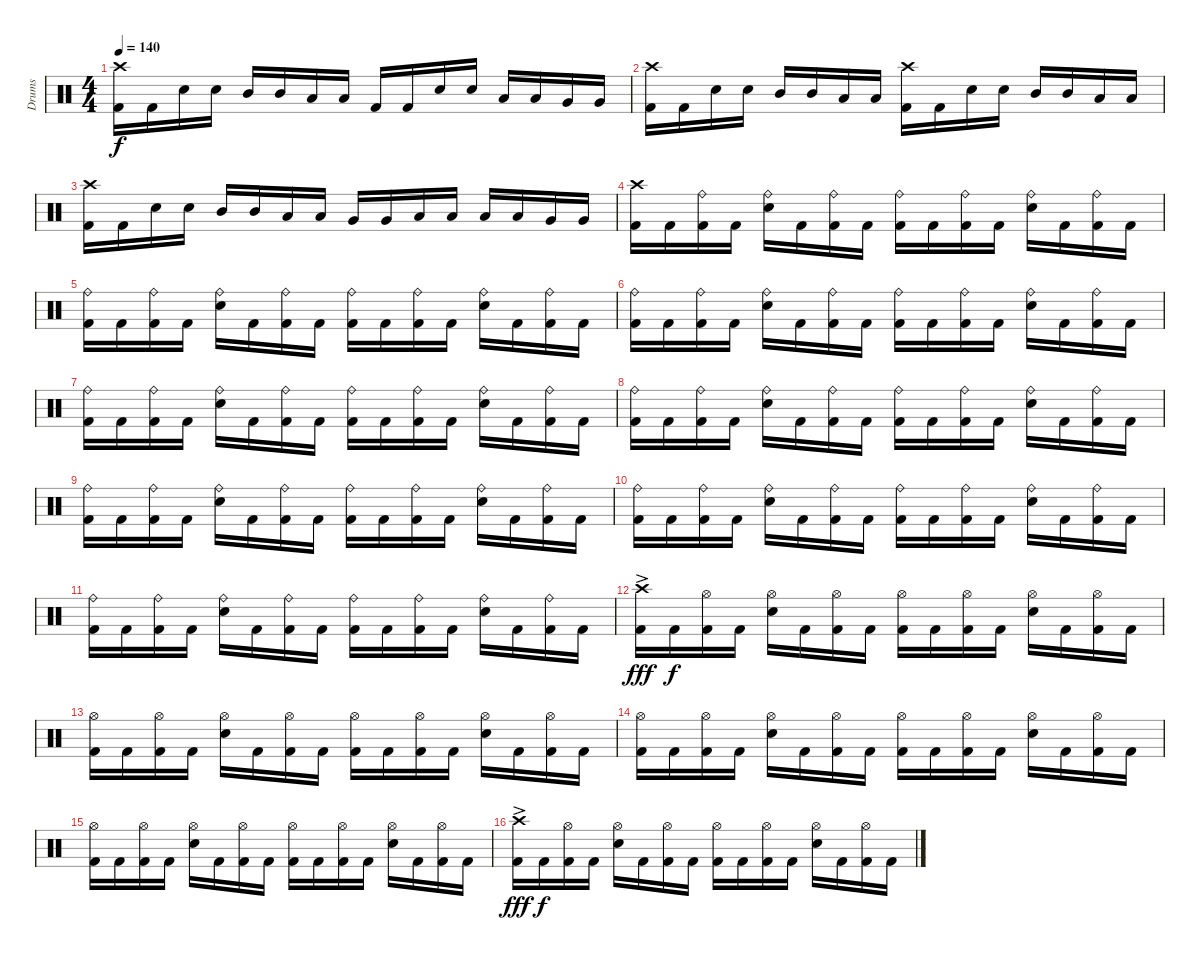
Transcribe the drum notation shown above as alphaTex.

\track ("Drums" "Drums") {instrument percussion}
\staff {score}
\articulation defaults
\ts (4 4)
\tempo 140
\clef neutral
\ks c
("Crash high (hit)" "Kick (hit) 2").16{dy f} "Kick (hit) 2".16 "Snare (hit) 2".16 "Snare (hit) 2".16 "Mid Tom (hit)".16 "Mid Tom (hit)".16 "Low Tom (hit)".16 "Low Tom (hit)".16 "Kick (hit) 2".16 "Kick (hit) 2".16 "Snare (hit) 2".16 "Snare (hit) 2".16 "Low Tom (hit)".16 "Low Tom (hit)".16 "Very Low Tom (hit)".16 "Very Low Tom (hit)".16 |
("Crash high (hit)" "Kick (hit) 2").16 "Kick (hit) 2".16 "Snare (hit) 2".16 "Snare (hit) 2".16 "Mid Tom (hit)".16 "Mid Tom (hit)".16 "Low Tom (hit)".16 "Low Tom (hit)".16 ("Crash high (hit)" "Kick (hit) 2").16 "Kick (hit) 2".16 "Snare (hit) 2".16 "Snare (hit) 2".16 "Mid Tom (hit)".16 "Mid Tom (hit)".16 "Low Tom (hit)".16 "Low Tom (hit)".16 |
("Crash high (hit)" "Kick (hit) 2").16 "Kick (hit) 2".16 "Snare (hit) 2".16 "Snare (hit) 2".16 "Mid Tom (hit)".16 "Mid Tom (hit)".16 "Low Tom (hit)".16 "Low Tom (hit)".16 "Very Low Tom (hit)".16 "Very Low Tom (hit)".16 "Low Floor Tom (hit)".16 "Low Floor Tom (hit)".16 "Low Tom (hit)".16 "Low Tom (hit)".16 "Very Low Tom (hit)".16 "Very Low Tom (hit)".16 |
("Crash high (hit)" "Kick (hit) 2").16 "Kick (hit) 2".16 ("Ride (bell)" "Kick (hit) 2").16 "Kick (hit) 2".16 ("Ride (bell)" "Snare (hit) 2").16 "Kick (hit) 2".16 ("Ride (bell)" "Kick (hit) 2").16 "Kick (hit) 2".16 ("Ride (bell)" "Kick (hit) 2").16 "Kick (hit) 2".16 ("Ride (bell)" "Kick (hit) 2").16 "Kick (hit) 2".16 ("Ride (bell)" "Snare (hit) 2").16 "Kick (hit) 2".16 ("Ride (bell)" "Kick (hit) 2").16 "Kick (hit) 2".16 |
("Ride (bell)" "Kick (hit) 2").16 "Kick (hit) 2".16 ("Ride (bell)" "Kick (hit) 2").16 "Kick (hit) 2".16 ("Ride (bell)" "Snare (hit) 2").16 "Kick (hit) 2".16 ("Ride (bell)" "Kick (hit) 2").16 "Kick (hit) 2".16 ("Ride (bell)" "Kick (hit) 2").16 "Kick (hit) 2".16 ("Ride (bell)" "Kick (hit) 2").16 "Kick (hit) 2".16 ("Ride (bell)" "Snare (hit) 2").16 "Kick (hit) 2".16 ("Ride (bell)" "Kick (hit) 2").16 "Kick (hit) 2".16 |
("Ride (bell)" "Kick (hit) 2").16 "Kick (hit) 2".16 ("Ride (bell)" "Kick (hit) 2").16 "Kick (hit) 2".16 ("Ride (bell)" "Snare (hit) 2").16 "Kick (hit) 2".16 ("Ride (bell)" "Kick (hit) 2").16 "Kick (hit) 2".16 ("Ride (bell)" "Kick (hit) 2").16 "Kick (hit) 2".16 ("Ride (bell)" "Kick (hit) 2").16 "Kick (hit) 2".16 ("Ride (bell)" "Snare (hit) 2").16 "Kick (hit) 2".16 ("Ride (bell)" "Kick (hit) 2").16 "Kick (hit) 2".16 |
("Ride (bell)" "Kick (hit) 2").16 "Kick (hit) 2".16 ("Ride (bell)" "Kick (hit) 2").16 "Kick (hit) 2".16 ("Ride (bell)" "Snare (hit) 2").16 "Kick (hit) 2".16 ("Ride (bell)" "Kick (hit) 2").16 "Kick (hit) 2".16 ("Ride (bell)" "Kick (hit) 2").16 "Kick (hit) 2".16 ("Ride (bell)" "Kick (hit) 2").16 "Kick (hit) 2".16 ("Ride (bell)" "Snare (hit) 2").16 "Kick (hit) 2".16 ("Ride (bell)" "Kick (hit) 2").16 "Kick (hit) 2".16 |
("Ride (bell)" "Kick (hit) 2").16 "Kick (hit) 2".16 ("Ride (bell)" "Kick (hit) 2").16 "Kick (hit) 2".16 ("Ride (bell)" "Snare (hit) 2").16 "Kick (hit) 2".16 ("Ride (bell)" "Kick (hit) 2").16 "Kick (hit) 2".16 ("Ride (bell)" "Kick (hit) 2").16 "Kick (hit) 2".16 ("Ride (bell)" "Kick (hit) 2").16 "Kick (hit) 2".16 ("Ride (bell)" "Snare (hit) 2").16 "Kick (hit) 2".16 ("Ride (bell)" "Kick (hit) 2").16 "Kick (hit) 2".16 |
("Ride (bell)" "Kick (hit) 2").16 "Kick (hit) 2".16 ("Ride (bell)" "Kick (hit) 2").16 "Kick (hit) 2".16 ("Ride (bell)" "Snare (hit) 2").16 "Kick (hit) 2".16 ("Ride (bell)" "Kick (hit) 2").16 "Kick (hit) 2".16 ("Ride (bell)" "Kick (hit) 2").16 "Kick (hit) 2".16 ("Ride (bell)" "Kick (hit) 2").16 "Kick (hit) 2".16 ("Ride (bell)" "Snare (hit) 2").16 "Kick (hit) 2".16 ("Ride (bell)" "Kick (hit) 2").16 "Kick (hit) 2".16 |
("Ride (bell)" "Kick (hit) 2").16 "Kick (hit) 2".16 ("Ride (bell)" "Kick (hit) 2").16 "Kick (hit) 2".16 ("Ride (bell)" "Snare (hit) 2").16 "Kick (hit) 2".16 ("Ride (bell)" "Kick (hit) 2").16 "Kick (hit) 2".16 ("Ride (bell)" "Kick (hit) 2").16 "Kick (hit) 2".16 ("Ride (bell)" "Kick (hit) 2").16 "Kick (hit) 2".16 ("Ride (bell)" "Snare (hit) 2").16 "Kick (hit) 2".16 ("Ride (bell)" "Kick (hit) 2").16 "Kick (hit) 2".16 |
("Ride (bell)" "Kick (hit) 2").16 "Kick (hit) 2".16 ("Ride (bell)" "Kick (hit) 2").16 "Kick (hit) 2".16 ("Ride (bell)" "Snare (hit) 2").16 "Kick (hit) 2".16 ("Ride (bell)" "Kick (hit) 2").16 "Kick (hit) 2".16 ("Ride (bell)" "Kick (hit) 2").16 "Kick (hit) 2".16 ("Ride (bell)" "Kick (hit) 2").16 "Kick (hit) 2".16 ("Ride (bell)" "Snare (hit) 2").16 "Kick (hit) 2".16 ("Ride (bell)" "Kick (hit) 2").16 "Kick (hit) 2".16 |
("Crash high (hit)"{ac} "Kick (hit) 2").16{dy fff} "Kick (hit) 2".16{dy f} ("Hi-Hat (open)" "Kick (hit) 2").16 "Kick (hit) 2".16 ("Hi-Hat (open)" "Snare (hit) 2").16 "Kick (hit) 2".16 ("Hi-Hat (open)" "Kick (hit) 2").16 "Kick (hit) 2".16 ("Hi-Hat (open)" "Kick (hit) 2").16 "Kick (hit) 2".16 ("Hi-Hat (open)" "Kick (hit) 2").16 "Kick (hit) 2".16 ("Hi-Hat (open)" "Snare (hit) 2").16 "Kick (hit) 2".16 ("Hi-Hat (open)" "Kick (hit) 2").16 "Kick (hit) 2".16 |
("Hi-Hat (open)" "Kick (hit) 2").16 "Kick (hit) 2".16 ("Hi-Hat (open)" "Kick (hit) 2").16 "Kick (hit) 2".16 ("Hi-Hat (open)" "Snare (hit) 2").16 "Kick (hit) 2".16 ("Hi-Hat (open)" "Kick (hit) 2").16 "Kick (hit) 2".16 ("Hi-Hat (open)" "Kick (hit) 2").16 "Kick (hit) 2".16 ("Hi-Hat (open)" "Kick (hit) 2").16 "Kick (hit) 2".16 ("Hi-Hat (open)" "Snare (hit) 2").16 "Kick (hit) 2".16 ("Hi-Hat (open)" "Kick (hit) 2").16 "Kick (hit) 2".16 |
("Hi-Hat (open)" "Kick (hit) 2").16 "Kick (hit) 2".16 ("Hi-Hat (open)" "Kick (hit) 2").16 "Kick (hit) 2".16 ("Hi-Hat (open)" "Snare (hit) 2").16 "Kick (hit) 2".16 ("Hi-Hat (open)" "Kick (hit) 2").16 "Kick (hit) 2".16 ("Hi-Hat (open)" "Kick (hit) 2").16 "Kick (hit) 2".16 ("Hi-Hat (open)" "Kick (hit) 2").16 "Kick (hit) 2".16 ("Hi-Hat (open)" "Snare (hit) 2").16 "Kick (hit) 2".16 ("Hi-Hat (open)" "Kick (hit) 2").16 "Kick (hit) 2".16 |
("Hi-Hat (open)" "Kick (hit) 2").16 "Kick (hit) 2".16 ("Hi-Hat (open)" "Kick (hit) 2").16 "Kick (hit) 2".16 ("Hi-Hat (open)" "Snare (hit) 2").16 "Kick (hit) 2".16 ("Hi-Hat (open)" "Kick (hit) 2").16 "Kick (hit) 2".16 ("Hi-Hat (open)" "Kick (hit) 2").16 "Kick (hit) 2".16 ("Hi-Hat (open)" "Kick (hit) 2").16 "Kick (hit) 2".16 ("Hi-Hat (open)" "Snare (hit) 2").16 "Kick (hit) 2".16 ("Hi-Hat (open)" "Kick (hit) 2").16 "Kick (hit) 2".16 |
("Crash high (hit)"{ac} "Kick (hit) 2").16{dy fff} "Kick (hit) 2".16{dy f} ("Hi-Hat (open)" "Kick (hit) 2").16 "Kick (hit) 2".16 ("Hi-Hat (open)" "Snare (hit) 2").16 "Kick (hit) 2".16 ("Hi-Hat (open)" "Kick (hit) 2").16 "Kick (hit) 2".16 ("Hi-Hat (open)" "Kick (hit) 2").16 "Kick (hit) 2".16 ("Hi-Hat (open)" "Kick (hit) 2").16 "Kick (hit) 2".16 ("Hi-Hat (open)" "Snare (hit) 2").16 "Kick (hit) 2".16 ("Hi-Hat (open)" "Kick (hit) 2").16 "Kick (hit) 2".16
